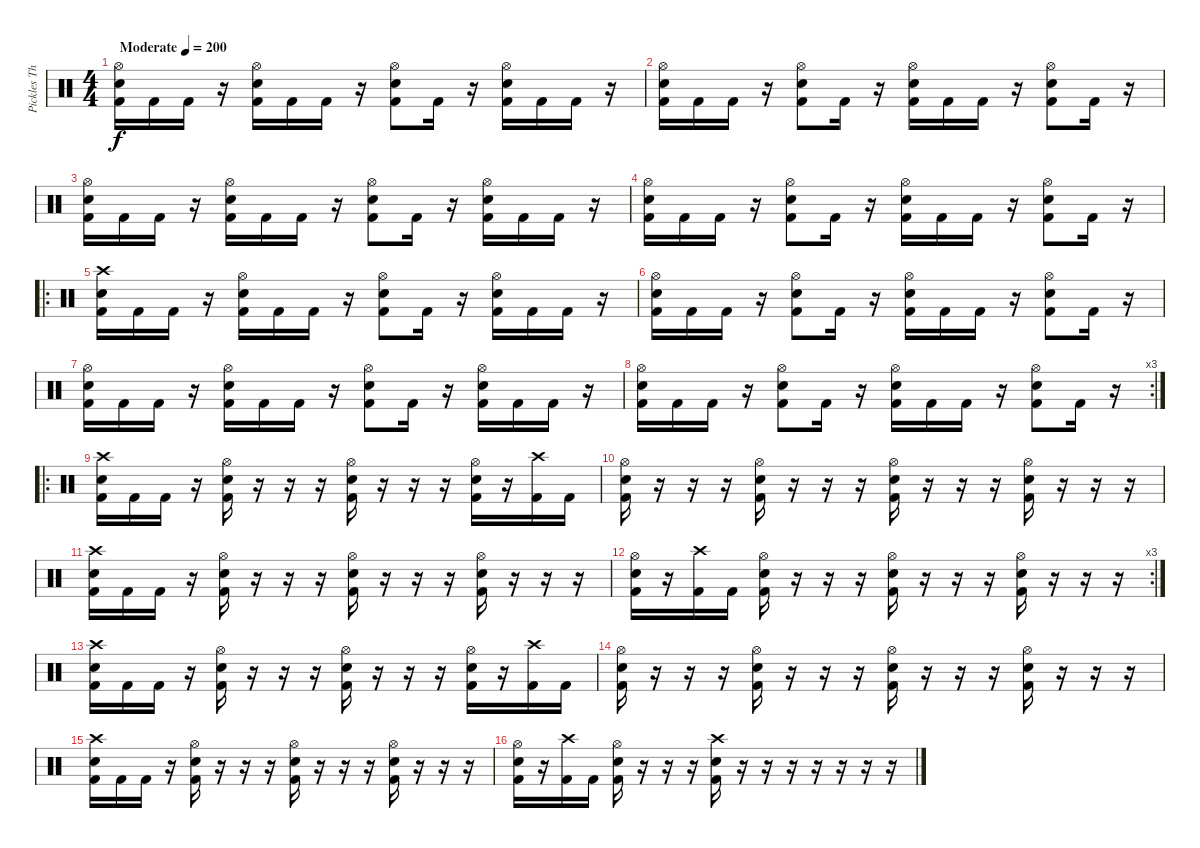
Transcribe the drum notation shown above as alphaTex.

\track ("Pickles The Drummer" "Pickles Th") {instrument percussion}
\staff {score}
\articulation defaults
\ts (4 4)
\tempo (200 "Moderate")
\clef neutral
\ks c
("Hi-Hat (open)" "Electric Snare (hit)" "Kick (hit) 2").16{dy f} "Kick (hit) 2".16 "Kick (hit) 2".16 r.16 ("Hi-Hat (open)" "Electric Snare (hit)" "Kick (hit) 2").16 "Kick (hit) 2".16 "Kick (hit) 2".16 r.16 ("Hi-Hat (open)" "Electric Snare (hit)" "Kick (hit) 2").8 "Kick (hit) 2".16 r.16 ("Hi-Hat (open)" "Electric Snare (hit)" "Kick (hit) 2").16 "Kick (hit) 2".16 "Kick (hit) 2".16 r.16 |
("Hi-Hat (open)" "Electric Snare (hit)" "Kick (hit) 2").16 "Kick (hit) 2".16 "Kick (hit) 2".16 r.16 ("Hi-Hat (open)" "Electric Snare (hit)" "Kick (hit) 2").8 "Kick (hit) 2".16 r.16 ("Hi-Hat (open)" "Electric Snare (hit)" "Kick (hit) 2").16 "Kick (hit) 2".16 "Kick (hit) 2".16 r.16 ("Hi-Hat (open)" "Electric Snare (hit)" "Kick (hit) 2").8 "Kick (hit) 2".16 r.16 |
("Hi-Hat (open)" "Electric Snare (hit)" "Kick (hit) 2").16 "Kick (hit) 2".16 "Kick (hit) 2".16 r.16 ("Hi-Hat (open)" "Electric Snare (hit)" "Kick (hit) 2").16 "Kick (hit) 2".16 "Kick (hit) 2".16 r.16 ("Hi-Hat (open)" "Electric Snare (hit)" "Kick (hit) 2").8 "Kick (hit) 2".16 r.16 ("Hi-Hat (open)" "Electric Snare (hit)" "Kick (hit) 2").16 "Kick (hit) 2".16 "Kick (hit) 2".16 r.16 |
("Hi-Hat (open)" "Electric Snare (hit)" "Kick (hit) 2").16 "Kick (hit) 2".16 "Kick (hit) 2".16 r.16 ("Hi-Hat (open)" "Electric Snare (hit)" "Kick (hit) 2").8 "Kick (hit) 2".16 r.16 ("Hi-Hat (open)" "Electric Snare (hit)" "Kick (hit) 2").16 "Kick (hit) 2".16 "Kick (hit) 2".16 r.16 ("Hi-Hat (open)" "Electric Snare (hit)" "Kick (hit) 2").8 "Kick (hit) 2".16 r.16 |
\ro
("Crash high (hit)" "Electric Snare (hit)" "Kick (hit) 2").16 "Kick (hit) 2".16 "Kick (hit) 2".16 r.16 ("Hi-Hat (open)" "Electric Snare (hit)" "Kick (hit) 2").16 "Kick (hit) 2".16 "Kick (hit) 2".16 r.16 ("Hi-Hat (open)" "Electric Snare (hit)" "Kick (hit) 2").8 "Kick (hit) 2".16 r.16 ("Hi-Hat (open)" "Electric Snare (hit)" "Kick (hit) 2").16 "Kick (hit) 2".16 "Kick (hit) 2".16 r.16 |
("Hi-Hat (open)" "Electric Snare (hit)" "Kick (hit) 2").16 "Kick (hit) 2".16 "Kick (hit) 2".16 r.16 ("Hi-Hat (open)" "Electric Snare (hit)" "Kick (hit) 2").8 "Kick (hit) 2".16 r.16 ("Hi-Hat (open)" "Electric Snare (hit)" "Kick (hit) 2").16 "Kick (hit) 2".16 "Kick (hit) 2".16 r.16 ("Hi-Hat (open)" "Electric Snare (hit)" "Kick (hit) 2").8 "Kick (hit) 2".16 r.16 |
("Hi-Hat (open)" "Electric Snare (hit)" "Kick (hit) 2").16 "Kick (hit) 2".16 "Kick (hit) 2".16 r.16 ("Hi-Hat (open)" "Electric Snare (hit)" "Kick (hit) 2").16 "Kick (hit) 2".16 "Kick (hit) 2".16 r.16 ("Hi-Hat (open)" "Electric Snare (hit)" "Kick (hit) 2").8 "Kick (hit) 2".16 r.16 ("Hi-Hat (open)" "Electric Snare (hit)" "Kick (hit) 2").16 "Kick (hit) 2".16 "Kick (hit) 2".16 r.16 |
\rc 3
("Hi-Hat (open)" "Electric Snare (hit)" "Kick (hit) 2").16 "Kick (hit) 2".16 "Kick (hit) 2".16 r.16 ("Hi-Hat (open)" "Electric Snare (hit)" "Kick (hit) 2").8 "Kick (hit) 2".16 r.16 ("Hi-Hat (open)" "Electric Snare (hit)" "Kick (hit) 2").16 "Kick (hit) 2".16 "Kick (hit) 2".16 r.16 ("Hi-Hat (open)" "Electric Snare (hit)" "Kick (hit) 2").8 "Kick (hit) 2".16 r.16 |
\ro
("Crash high (hit)" "Electric Snare (hit)" "Kick (hit) 2").16 "Kick (hit) 2".16 "Kick (hit) 2".16 r.16 ("Hi-Hat (open)" "Electric Snare (hit)" "Kick (hit) 2").16 r.16 r.16 r.16 ("Hi-Hat (open)" "Electric Snare (hit)" "Kick (hit) 2").16 r.16 r.16 r.16 ("Hi-Hat (open)" "Electric Snare (hit)" "Kick (hit) 2").16 r.16 ("Crash high (hit)" "Kick (hit) 2").16 "Kick (hit) 2".16 |
("Hi-Hat (open)" "Electric Snare (hit)" "Kick (hit) 2").16 r.16 r.16 r.16 ("Hi-Hat (open)" "Electric Snare (hit)" "Kick (hit) 2").16 r.16 r.16 r.16 ("Hi-Hat (open)" "Electric Snare (hit)" "Kick (hit) 2").16 r.16 r.16 r.16 ("Hi-Hat (open)" "Electric Snare (hit)" "Kick (hit) 2").16 r.16 r.16 r.16 |
("Crash high (hit)" "Electric Snare (hit)" "Kick (hit) 2").16 "Kick (hit) 2".16 "Kick (hit) 2".16 r.16 ("Hi-Hat (open)" "Electric Snare (hit)" "Kick (hit) 2").16 r.16 r.16 r.16 ("Hi-Hat (open)" "Electric Snare (hit)" "Kick (hit) 2").16 r.16 r.16 r.16 ("Hi-Hat (open)" "Electric Snare (hit)" "Kick (hit) 2").16 r.16 r.16 r.16 |
\rc 3
("Hi-Hat (open)" "Electric Snare (hit)" "Kick (hit) 2").16 r.16 ("Crash high (hit)" "Kick (hit) 2").16 "Kick (hit) 2".16 ("Hi-Hat (open)" "Electric Snare (hit)" "Kick (hit) 2").16 r.16 r.16 r.16 ("Hi-Hat (open)" "Electric Snare (hit)" "Kick (hit) 2").16 r.16 r.16 r.16 ("Hi-Hat (open)" "Electric Snare (hit)" "Kick (hit) 2").16 r.16 r.16 r.16 |
("Crash high (hit)" "Electric Snare (hit)" "Kick (hit) 2").16 "Kick (hit) 2".16 "Kick (hit) 2".16 r.16 ("Hi-Hat (open)" "Electric Snare (hit)" "Kick (hit) 2").16 r.16 r.16 r.16 ("Hi-Hat (open)" "Electric Snare (hit)" "Kick (hit) 2").16 r.16 r.16 r.16 ("Hi-Hat (open)" "Electric Snare (hit)" "Kick (hit) 2").16 r.16 ("Crash high (hit)" "Kick (hit) 2").16 "Kick (hit) 2".16 |
("Hi-Hat (open)" "Electric Snare (hit)" "Kick (hit) 2").16 r.16 r.16 r.16 ("Hi-Hat (open)" "Electric Snare (hit)" "Kick (hit) 2").16 r.16 r.16 r.16 ("Hi-Hat (open)" "Electric Snare (hit)" "Kick (hit) 2").16 r.16 r.16 r.16 ("Hi-Hat (open)" "Electric Snare (hit)" "Kick (hit) 2").16 r.16 r.16 r.16 |
("Crash high (hit)" "Electric Snare (hit)" "Kick (hit) 2").16 "Kick (hit) 2".16 "Kick (hit) 2".16 r.16 ("Hi-Hat (open)" "Electric Snare (hit)" "Kick (hit) 2").16 r.16 r.16 r.16 ("Hi-Hat (open)" "Electric Snare (hit)" "Kick (hit) 2").16 r.16 r.16 r.16 ("Hi-Hat (open)" "Electric Snare (hit)" "Kick (hit) 2").16 r.16 r.16 r.16 |
("Hi-Hat (open)" "Electric Snare (hit)" "Kick (hit) 2").16 r.16 ("Crash high (hit)" "Kick (hit) 2").16 "Kick (hit) 2".16 ("Hi-Hat (open)" "Electric Snare (hit)" "Kick (hit) 2").16 r.16 r.16 r.16 ("Crash high (hit)" "Electric Snare (hit)" "Kick (hit) 2").16 r.16 r.16 r.16 r.16 r.16 r.16 r.16
